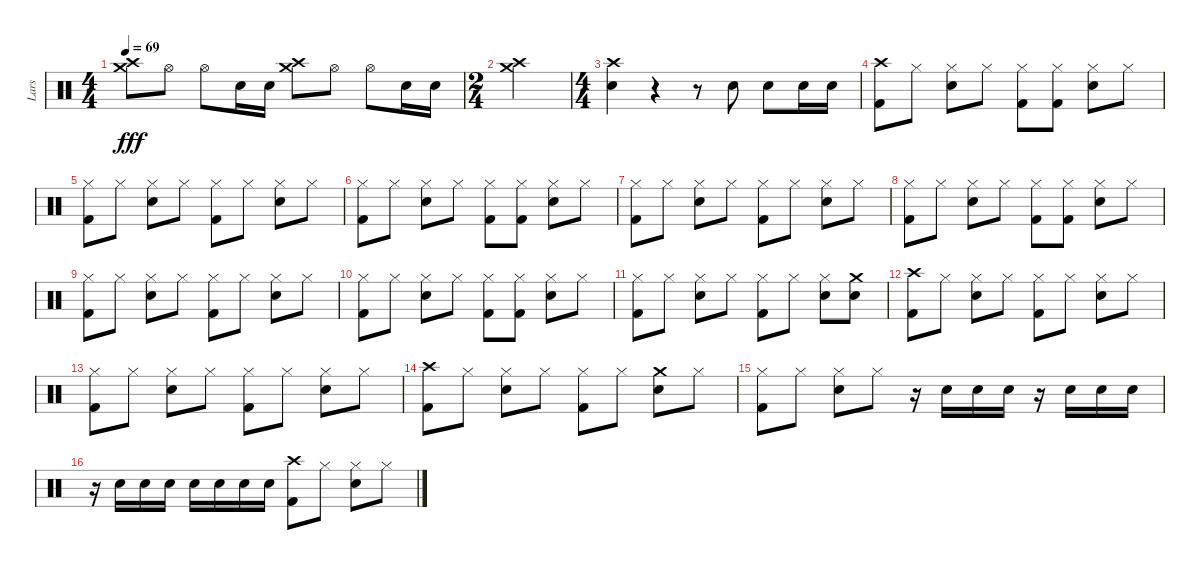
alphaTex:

\track ("Lars" "Lars") {instrument percussion}
\staff {score}
\articulation defaults
\ts (4 4)
\tempo 69
\clef neutral
\ks c
("Crash high (hit)" "Crash medium (hit)").8{dy fff} "Hi-Hat (open)".8 "Hi-Hat (open)".8 "Electric Snare (hit)".16 "Electric Snare (hit)".16 ("Crash high (hit)" "Crash medium (hit)").8 "Hi-Hat (open)".8 "Hi-Hat (open)".8 "Electric Snare (hit)".16 "Electric Snare (hit)".16 |
\ts (2 4)
("Crash high (hit)" "Crash medium (hit)").2 |
\ts (4 4)
("Crash high (hit)" "Electric Snare (hit)").4 r.4 r.8 "Electric Snare (hit)".8 "Electric Snare (hit)".8 "Electric Snare (hit)".16 "Electric Snare (hit)".16 |
("Crash high (hit)" "Kick (hit) 2").8 "Hi-Hat (closed)".8 ("Hi-Hat (closed)" "Electric Snare (hit)").8 "Hi-Hat (closed)".8 ("Hi-Hat (closed)" "Kick (hit) 2").8 ("Hi-Hat (closed)" "Kick (hit) 2").8 ("Hi-Hat (closed)" "Electric Snare (hit)").8 "Hi-Hat (closed)".8 |
("Hi-Hat (closed)" "Kick (hit) 2").8 "Hi-Hat (closed)".8 ("Hi-Hat (closed)" "Electric Snare (hit)").8 "Hi-Hat (closed)".8 ("Hi-Hat (closed)" "Kick (hit) 2").8 "Hi-Hat (closed)".8 ("Hi-Hat (closed)" "Electric Snare (hit)").8 "Hi-Hat (closed)".8 |
("Hi-Hat (closed)" "Kick (hit) 2").8 "Hi-Hat (closed)".8 ("Hi-Hat (closed)" "Electric Snare (hit)").8 "Hi-Hat (closed)".8 ("Hi-Hat (closed)" "Kick (hit) 2").8 ("Hi-Hat (closed)" "Kick (hit) 2").8 ("Hi-Hat (closed)" "Electric Snare (hit)").8 "Hi-Hat (closed)".8 |
("Hi-Hat (closed)" "Kick (hit) 2").8 "Hi-Hat (closed)".8 ("Hi-Hat (closed)" "Electric Snare (hit)").8 "Hi-Hat (closed)".8 ("Hi-Hat (closed)" "Kick (hit) 2").8 "Hi-Hat (closed)".8 ("Hi-Hat (closed)" "Electric Snare (hit)").8 "Hi-Hat (closed)".8 |
("Hi-Hat (closed)" "Kick (hit) 2").8 "Hi-Hat (closed)".8 ("Hi-Hat (closed)" "Electric Snare (hit)").8 "Hi-Hat (closed)".8 ("Hi-Hat (closed)" "Kick (hit) 2").8 ("Hi-Hat (closed)" "Kick (hit) 2").8 ("Hi-Hat (closed)" "Electric Snare (hit)").8 "Hi-Hat (closed)".8 |
("Hi-Hat (closed)" "Kick (hit) 2").8 "Hi-Hat (closed)".8 ("Hi-Hat (closed)" "Electric Snare (hit)").8 "Hi-Hat (closed)".8 ("Hi-Hat (closed)" "Kick (hit) 2").8 "Hi-Hat (closed)".8 ("Hi-Hat (closed)" "Electric Snare (hit)").8 "Hi-Hat (closed)".8 |
("Hi-Hat (closed)" "Kick (hit) 2").8 "Hi-Hat (closed)".8 ("Hi-Hat (closed)" "Electric Snare (hit)").8 "Hi-Hat (closed)".8 ("Hi-Hat (closed)" "Kick (hit) 2").8 ("Hi-Hat (closed)" "Kick (hit) 2").8 ("Hi-Hat (closed)" "Electric Snare (hit)").8 "Hi-Hat (closed)".8 |
("Hi-Hat (closed)" "Kick (hit) 2").8 "Hi-Hat (closed)".8 ("Hi-Hat (closed)" "Electric Snare (hit)").8 "Hi-Hat (closed)".8 ("Hi-Hat (closed)" "Kick (hit) 2").8 "Hi-Hat (closed)".8 ("Hi-Hat (closed)" "Electric Snare (hit)").8 ("Crash medium (hit)" "Electric Snare (hit)").8 |
("Crash high (hit)" "Kick (hit) 2").8 "Hi-Hat (closed)".8 ("Hi-Hat (closed)" "Electric Snare (hit)").8 "Hi-Hat (closed)".8 ("Hi-Hat (closed)" "Kick (hit) 2").8 "Hi-Hat (closed)".8 ("Hi-Hat (closed)" "Electric Snare (hit)").8 "Hi-Hat (closed)".8 |
("Hi-Hat (closed)" "Kick (hit) 2").8 "Hi-Hat (closed)".8 ("Hi-Hat (closed)" "Electric Snare (hit)").8 "Hi-Hat (closed)".8 ("Hi-Hat (closed)" "Kick (hit) 2").8 "Hi-Hat (closed)".8 ("Hi-Hat (closed)" "Electric Snare (hit)").8 "Hi-Hat (closed)".8 |
("Crash high (hit)" "Kick (hit) 2").8 "Hi-Hat (closed)".8 ("Hi-Hat (closed)" "Electric Snare (hit)").8 "Hi-Hat (closed)".8 ("Hi-Hat (closed)" "Kick (hit) 2").8 "Hi-Hat (closed)".8 ("Crash medium (hit)" "Electric Snare (hit)").8 "Hi-Hat (closed)".8 |
("Hi-Hat (closed)" "Kick (hit) 2").8 "Hi-Hat (closed)".8 ("Hi-Hat (closed)" "Electric Snare (hit)").8 "Hi-Hat (closed)".8 r.16 "Electric Snare (hit)".16 "Electric Snare (hit)".16 "Electric Snare (hit)".16 r.16 "Electric Snare (hit)".16 "Electric Snare (hit)".16 "Electric Snare (hit)".16 |
r.16 "Electric Snare (hit)".16 "Electric Snare (hit)".16 "Electric Snare (hit)".16 "Electric Snare (hit)".16 "Electric Snare (hit)".16 "Electric Snare (hit)".16 "Electric Snare (hit)".16 ("Crash high (hit)" "Kick (hit) 2").8 "Hi-Hat (closed)".8 ("Hi-Hat (closed)" "Electric Snare (hit)").8 "Hi-Hat (closed)".8
